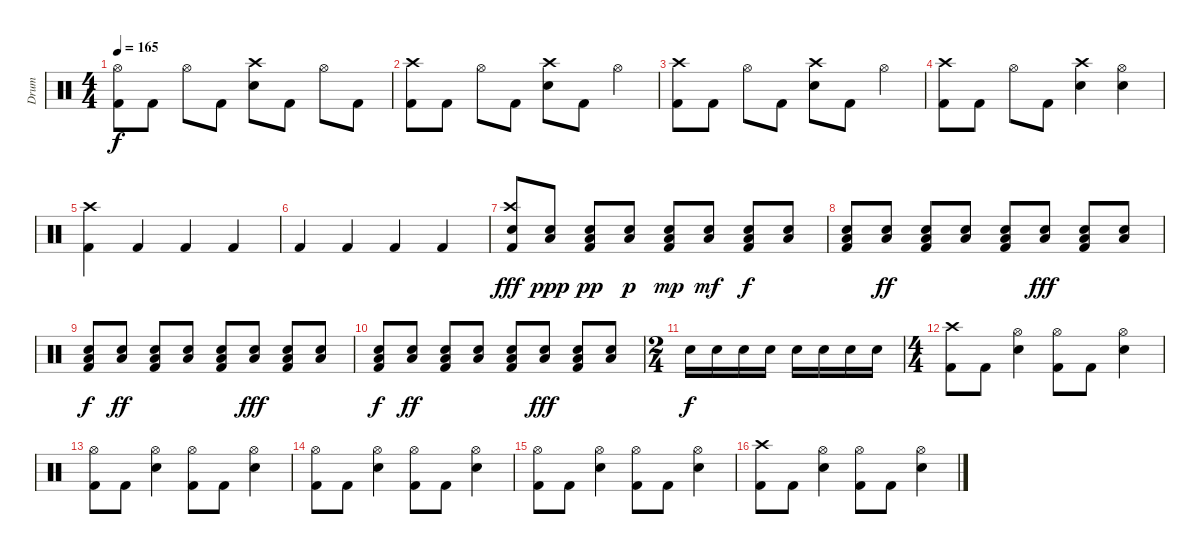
\track ("Drum" "Drum") {instrument percussion}
\staff {score}
\articulation defaults
\ts (4 4)
\tempo 165
\clef neutral
\ks c
("Hi-Hat (open)" "Kick (hit) 2").8{dy f} "Kick (hit) 2".8 "Hi-Hat (open)".8 "Kick (hit) 2".8 ("Crash high (hit)" "Electric Snare (hit)").8 "Kick (hit) 2".8 "Hi-Hat (open)".8 "Kick (hit) 2".8 |
("Crash high (hit)" "Kick (hit) 2").8 "Kick (hit) 2".8 "Hi-Hat (open)".8 "Kick (hit) 2".8 ("Crash high (hit)" "Electric Snare (hit)").8 "Kick (hit) 2".8 "Hi-Hat (open)".4 |
("Crash high (hit)" "Kick (hit) 2").8 "Kick (hit) 2".8 "Hi-Hat (open)".8 "Kick (hit) 2".8 ("Crash high (hit)" "Electric Snare (hit)").8 "Kick (hit) 2".8 "Hi-Hat (open)".4 |
("Crash high (hit)" "Kick (hit) 2").8 "Kick (hit) 2".8 "Hi-Hat (open)".8 "Kick (hit) 2".8 ("Crash high (hit)" "Electric Snare (hit)").4 ("Hi-Hat (open)" "Electric Snare (hit)").4 |
("Crash high (hit)" "Kick (hit) 2").4 "Kick (hit) 2".4 "Kick (hit) 2".4 "Kick (hit) 2".4 |
"Kick (hit) 2".4 "Kick (hit) 2".4 "Kick (hit) 2".4 "Kick (hit) 2".4 |
("Crash high (hit)" "Electric Snare (hit)" "Kick (hit) 2").8{dy fff} ("Low Tom (hit)" "Electric Snare (hit)").8{dy ppp} ("Low Tom (hit)" "Electric Snare (hit)" "Kick (hit) 2").8{dy pp} ("Low Tom (hit)" "Electric Snare (hit)").8{dy p} ("Low Tom (hit)" "Electric Snare (hit)" "Kick (hit) 2").8{dy mp} ("Low Tom (hit)" "Electric Snare (hit)").8{dy mf} ("Low Tom (hit)" "Electric Snare (hit)" "Kick (hit) 2").8{dy f} ("Low Tom (hit)" "Electric Snare (hit)").8 |
("Low Tom (hit)" "Electric Snare (hit)" "Kick (hit) 2").8 ("Low Tom (hit)" "Electric Snare (hit)").8{dy ff} ("Low Tom (hit)" "Electric Snare (hit)" "Kick (hit) 2").8 ("Low Tom (hit)" "Electric Snare (hit)").8 ("Low Tom (hit)" "Electric Snare (hit)" "Kick (hit) 2").8 ("Low Tom (hit)" "Electric Snare (hit)").8{dy fff} ("Low Tom (hit)" "Electric Snare (hit)" "Kick (hit) 2").8 ("Low Tom (hit)" "Electric Snare (hit)").8 |
("Low Tom (hit)" "Electric Snare (hit)" "Kick (hit) 2").8{dy f} ("Low Tom (hit)" "Electric Snare (hit)").8{dy ff} ("Low Tom (hit)" "Electric Snare (hit)" "Kick (hit) 2").8 ("Low Tom (hit)" "Electric Snare (hit)").8 ("Low Tom (hit)" "Electric Snare (hit)" "Kick (hit) 2").8 ("Low Tom (hit)" "Electric Snare (hit)").8{dy fff} ("Low Tom (hit)" "Electric Snare (hit)" "Kick (hit) 2").8 ("Low Tom (hit)" "Electric Snare (hit)").8 |
("Low Tom (hit)" "Electric Snare (hit)" "Kick (hit) 2").8{dy f} ("Low Tom (hit)" "Electric Snare (hit)").8{dy ff} ("Low Tom (hit)" "Electric Snare (hit)" "Kick (hit) 2").8 ("Low Tom (hit)" "Electric Snare (hit)").8 ("Low Tom (hit)" "Electric Snare (hit)" "Kick (hit) 2").8 ("Low Tom (hit)" "Electric Snare (hit)").8{dy fff} ("Low Tom (hit)" "Electric Snare (hit)" "Kick (hit) 2").8 ("Low Tom (hit)" "Electric Snare (hit)").8 |
\ts (2 4)
"Electric Snare (hit)".16{dy f} "Electric Snare (hit)".16 "Electric Snare (hit)".16 "Electric Snare (hit)".16 "Electric Snare (hit)".16 "Electric Snare (hit)".16 "Electric Snare (hit)".16 "Electric Snare (hit)".16 |
\ts (4 4)
("Crash high (hit)" "Kick (hit) 2").8 "Kick (hit) 2".8 ("Hi-Hat (open)" "Electric Snare (hit)").4 ("Hi-Hat (open)" "Kick (hit) 2").8 "Kick (hit) 2".8 ("Hi-Hat (open)" "Electric Snare (hit)").4 |
("Hi-Hat (open)" "Kick (hit) 2").8 "Kick (hit) 2".8 ("Hi-Hat (open)" "Electric Snare (hit)").4 ("Hi-Hat (open)" "Kick (hit) 2").8 "Kick (hit) 2".8 ("Hi-Hat (open)" "Electric Snare (hit)").4 |
("Hi-Hat (open)" "Kick (hit) 2").8 "Kick (hit) 2".8 ("Hi-Hat (open)" "Electric Snare (hit)").4 ("Hi-Hat (open)" "Kick (hit) 2").8 "Kick (hit) 2".8 ("Hi-Hat (open)" "Electric Snare (hit)").4 |
("Hi-Hat (open)" "Kick (hit) 2").8 "Kick (hit) 2".8 ("Hi-Hat (open)" "Electric Snare (hit)").4 ("Hi-Hat (open)" "Kick (hit) 2").8 "Kick (hit) 2".8 ("Hi-Hat (open)" "Electric Snare (hit)").4 |
("Crash high (hit)" "Kick (hit) 2").8 "Kick (hit) 2".8 ("Hi-Hat (open)" "Electric Snare (hit)").4 ("Hi-Hat (open)" "Kick (hit) 2").8 "Kick (hit) 2".8 ("Hi-Hat (open)" "Electric Snare (hit)").4
